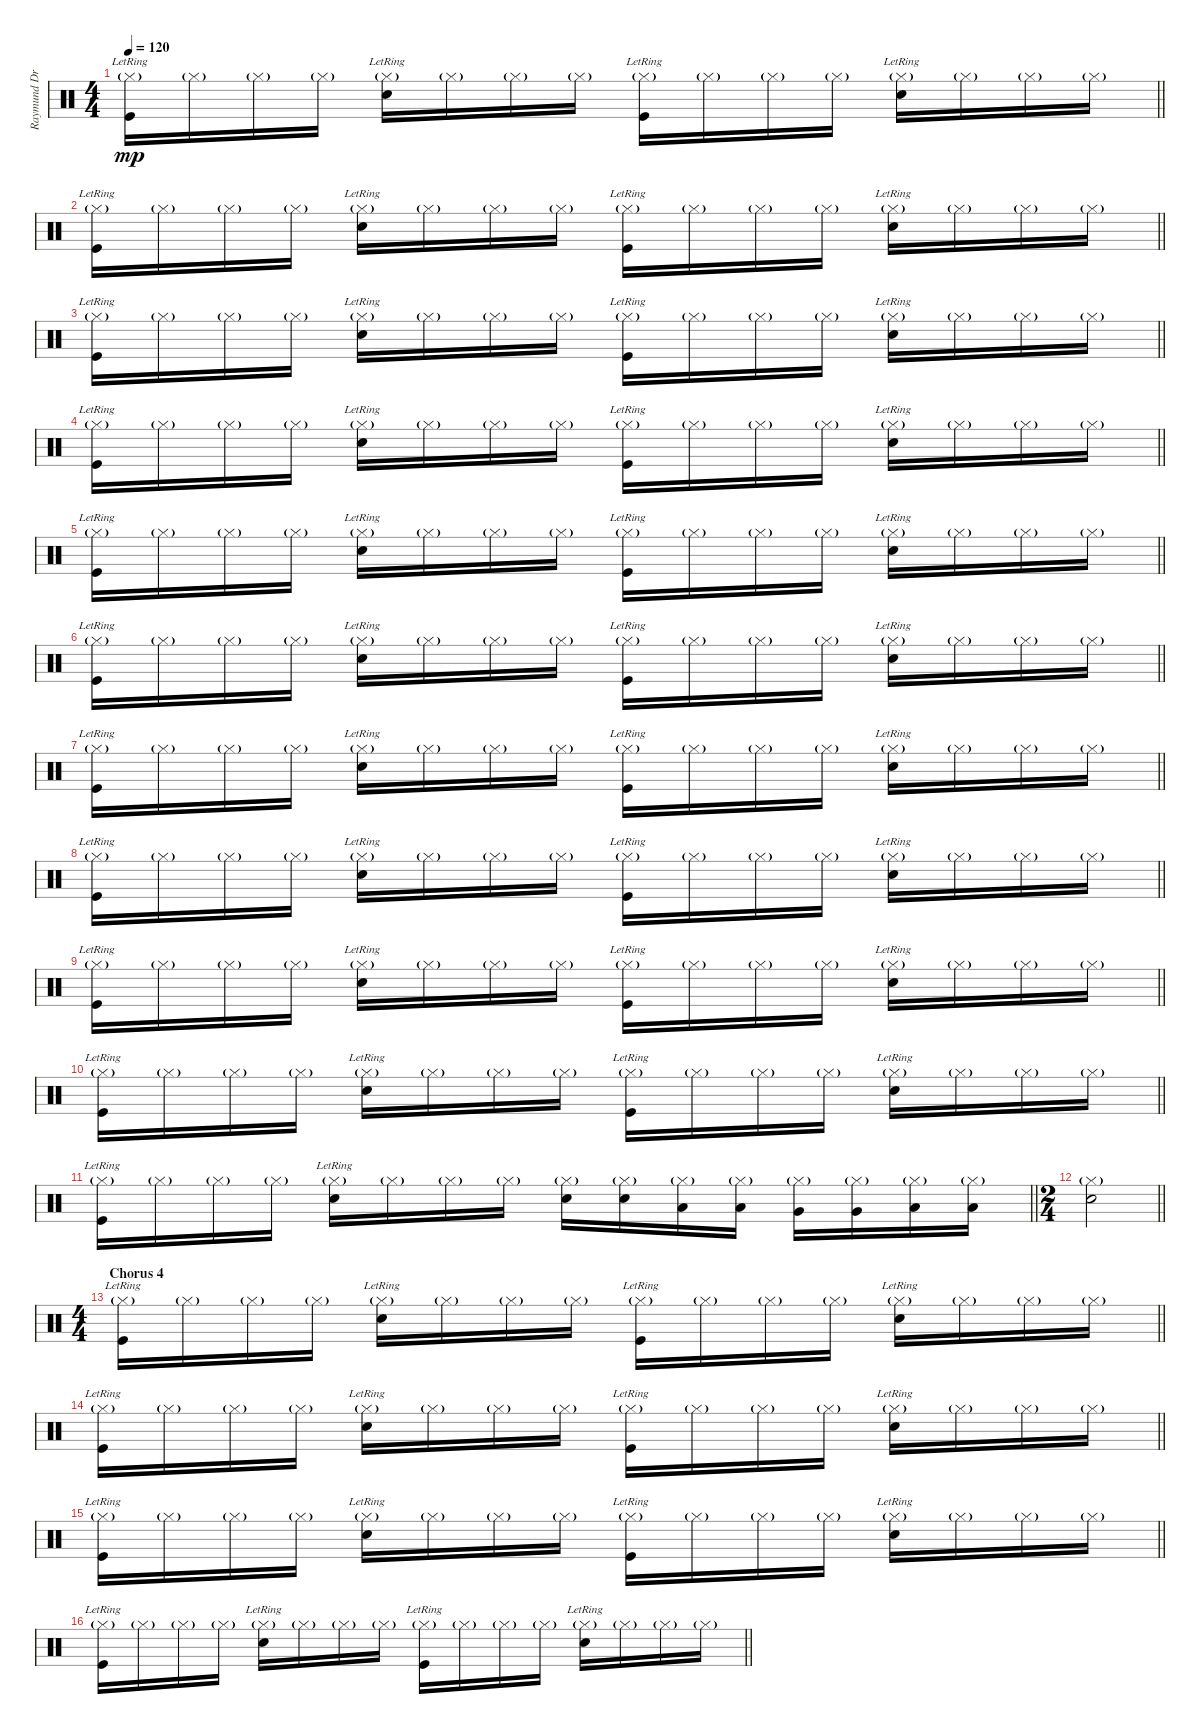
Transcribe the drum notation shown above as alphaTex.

\track ("Raymund Drums" "Raymund Dr") {instrument percussion}
\staff {score}
\articulation defaults
\ts (4 4)
\tempo 120
\clef neutral
\barLineRight lightlight
\ks c
("Hi-Hat (closed)"{g} "Kick (hit)"{lr}).16{dy mp} "Hi-Hat (closed)"{g}.16 "Hi-Hat (closed)"{g}.16 "Hi-Hat (closed)"{g}.16 ("Hi-Hat (closed)"{g} "Snare (hit) 2"{lr}).16 "Hi-Hat (closed)"{g}.16 "Hi-Hat (closed)"{g}.16 "Hi-Hat (closed)"{g}.16 ("Hi-Hat (closed)"{g} "Kick (hit)"{lr}).16 "Hi-Hat (closed)"{g}.16 "Hi-Hat (closed)"{g}.16 "Hi-Hat (closed)"{g}.16 ("Hi-Hat (closed)"{g} "Snare (hit) 2"{lr}).16 "Hi-Hat (closed)"{g}.16 "Hi-Hat (closed)"{g}.16 "Hi-Hat (closed)"{g}.16 |
\barLineRight lightlight
("Hi-Hat (closed)"{g} "Kick (hit)"{lr}).16 "Hi-Hat (closed)"{g}.16 "Hi-Hat (closed)"{g}.16 "Hi-Hat (closed)"{g}.16 ("Hi-Hat (closed)"{g} "Snare (hit) 2"{lr}).16 "Hi-Hat (closed)"{g}.16 "Hi-Hat (closed)"{g}.16 "Hi-Hat (closed)"{g}.16 ("Hi-Hat (closed)"{g} "Kick (hit)"{lr}).16 "Hi-Hat (closed)"{g}.16 "Hi-Hat (closed)"{g}.16 "Hi-Hat (closed)"{g}.16 ("Hi-Hat (closed)"{g} "Snare (hit) 2"{lr}).16 "Hi-Hat (closed)"{g}.16 "Hi-Hat (closed)"{g}.16 "Hi-Hat (closed)"{g}.16 |
\barLineRight lightlight
("Hi-Hat (closed)"{g} "Kick (hit)"{lr}).16 "Hi-Hat (closed)"{g}.16 "Hi-Hat (closed)"{g}.16 "Hi-Hat (closed)"{g}.16 ("Hi-Hat (closed)"{g} "Snare (hit) 2"{lr}).16 "Hi-Hat (closed)"{g}.16 "Hi-Hat (closed)"{g}.16 "Hi-Hat (closed)"{g}.16 ("Hi-Hat (closed)"{g} "Kick (hit)"{lr}).16 "Hi-Hat (closed)"{g}.16 "Hi-Hat (closed)"{g}.16 "Hi-Hat (closed)"{g}.16 ("Hi-Hat (closed)"{g} "Snare (hit) 2"{lr}).16 "Hi-Hat (closed)"{g}.16 "Hi-Hat (closed)"{g}.16 "Hi-Hat (closed)"{g}.16 |
\barLineRight lightlight
("Hi-Hat (closed)"{g} "Kick (hit)"{lr}).16 "Hi-Hat (closed)"{g}.16 "Hi-Hat (closed)"{g}.16 "Hi-Hat (closed)"{g}.16 ("Hi-Hat (closed)"{g} "Snare (hit) 2"{lr}).16 "Hi-Hat (closed)"{g}.16 "Hi-Hat (closed)"{g}.16 "Hi-Hat (closed)"{g}.16 ("Hi-Hat (closed)"{g} "Kick (hit)"{lr}).16 "Hi-Hat (closed)"{g}.16 "Hi-Hat (closed)"{g}.16 "Hi-Hat (closed)"{g}.16 ("Hi-Hat (closed)"{g} "Snare (hit) 2"{lr}).16 "Hi-Hat (closed)"{g}.16 "Hi-Hat (closed)"{g}.16 "Hi-Hat (closed)"{g}.16 |
\barLineRight lightlight
("Hi-Hat (closed)"{g} "Kick (hit)"{lr}).16 "Hi-Hat (closed)"{g}.16 "Hi-Hat (closed)"{g}.16 "Hi-Hat (closed)"{g}.16 ("Hi-Hat (closed)"{g} "Snare (hit) 2"{lr}).16 "Hi-Hat (closed)"{g}.16 "Hi-Hat (closed)"{g}.16 "Hi-Hat (closed)"{g}.16 ("Hi-Hat (closed)"{g} "Kick (hit)"{lr}).16 "Hi-Hat (closed)"{g}.16 "Hi-Hat (closed)"{g}.16 "Hi-Hat (closed)"{g}.16 ("Hi-Hat (closed)"{g} "Snare (hit) 2"{lr}).16 "Hi-Hat (closed)"{g}.16 "Hi-Hat (closed)"{g}.16 "Hi-Hat (closed)"{g}.16 |
\barLineRight lightlight
("Hi-Hat (closed)"{g} "Kick (hit)"{lr}).16 "Hi-Hat (closed)"{g}.16 "Hi-Hat (closed)"{g}.16 "Hi-Hat (closed)"{g}.16 ("Hi-Hat (closed)"{g} "Snare (hit) 2"{lr}).16 "Hi-Hat (closed)"{g}.16 "Hi-Hat (closed)"{g}.16 "Hi-Hat (closed)"{g}.16 ("Hi-Hat (closed)"{g} "Kick (hit)"{lr}).16 "Hi-Hat (closed)"{g}.16 "Hi-Hat (closed)"{g}.16 "Hi-Hat (closed)"{g}.16 ("Hi-Hat (closed)"{g} "Snare (hit) 2"{lr}).16 "Hi-Hat (closed)"{g}.16 "Hi-Hat (closed)"{g}.16 "Hi-Hat (closed)"{g}.16 |
\barLineRight lightlight
("Hi-Hat (closed)"{g} "Kick (hit)"{lr}).16 "Hi-Hat (closed)"{g}.16 "Hi-Hat (closed)"{g}.16 "Hi-Hat (closed)"{g}.16 ("Hi-Hat (closed)"{g} "Snare (hit) 2"{lr}).16 "Hi-Hat (closed)"{g}.16 "Hi-Hat (closed)"{g}.16 "Hi-Hat (closed)"{g}.16 ("Hi-Hat (closed)"{g} "Kick (hit)"{lr}).16 "Hi-Hat (closed)"{g}.16 "Hi-Hat (closed)"{g}.16 "Hi-Hat (closed)"{g}.16 ("Hi-Hat (closed)"{g} "Snare (hit) 2"{lr}).16 "Hi-Hat (closed)"{g}.16 "Hi-Hat (closed)"{g}.16 "Hi-Hat (closed)"{g}.16 |
\barLineRight lightlight
("Hi-Hat (closed)"{g} "Kick (hit)"{lr}).16 "Hi-Hat (closed)"{g}.16 "Hi-Hat (closed)"{g}.16 "Hi-Hat (closed)"{g}.16 ("Hi-Hat (closed)"{g} "Snare (hit) 2"{lr}).16 "Hi-Hat (closed)"{g}.16 "Hi-Hat (closed)"{g}.16 "Hi-Hat (closed)"{g}.16 ("Hi-Hat (closed)"{g} "Kick (hit)"{lr}).16 "Hi-Hat (closed)"{g}.16 "Hi-Hat (closed)"{g}.16 "Hi-Hat (closed)"{g}.16 ("Hi-Hat (closed)"{g} "Snare (hit) 2"{lr}).16 "Hi-Hat (closed)"{g}.16 "Hi-Hat (closed)"{g}.16 "Hi-Hat (closed)"{g}.16 |
\barLineRight lightlight
("Hi-Hat (closed)"{g} "Kick (hit)"{lr}).16 "Hi-Hat (closed)"{g}.16 "Hi-Hat (closed)"{g}.16 "Hi-Hat (closed)"{g}.16 ("Hi-Hat (closed)"{g} "Snare (hit) 2"{lr}).16 "Hi-Hat (closed)"{g}.16 "Hi-Hat (closed)"{g}.16 "Hi-Hat (closed)"{g}.16 ("Hi-Hat (closed)"{g} "Kick (hit)"{lr}).16 "Hi-Hat (closed)"{g}.16 "Hi-Hat (closed)"{g}.16 "Hi-Hat (closed)"{g}.16 ("Hi-Hat (closed)"{g} "Snare (hit) 2"{lr}).16 "Hi-Hat (closed)"{g}.16 "Hi-Hat (closed)"{g}.16 "Hi-Hat (closed)"{g}.16 |
\barLineRight lightlight
("Hi-Hat (closed)"{g} "Kick (hit)"{lr}).16 "Hi-Hat (closed)"{g}.16 "Hi-Hat (closed)"{g}.16 "Hi-Hat (closed)"{g}.16 ("Hi-Hat (closed)"{g} "Snare (hit) 2"{lr}).16 "Hi-Hat (closed)"{g}.16 "Hi-Hat (closed)"{g}.16 "Hi-Hat (closed)"{g}.16 ("Hi-Hat (closed)"{g} "Kick (hit)"{lr}).16 "Hi-Hat (closed)"{g}.16 "Hi-Hat (closed)"{g}.16 "Hi-Hat (closed)"{g}.16 ("Hi-Hat (closed)"{g} "Snare (hit) 2"{lr}).16 "Hi-Hat (closed)"{g}.16 "Hi-Hat (closed)"{g}.16 "Hi-Hat (closed)"{g}.16 |
\barLineRight lightlight
("Hi-Hat (closed)"{g} "Kick (hit)"{lr}).16 "Hi-Hat (closed)"{g}.16 "Hi-Hat (closed)"{g}.16 "Hi-Hat (closed)"{g}.16 ("Hi-Hat (closed)"{g} "Snare (hit) 2"{lr}).16 "Hi-Hat (closed)"{g}.16 "Hi-Hat (closed)"{g}.16 "Hi-Hat (closed)"{g}.16 ("Hi-Hat (closed)"{g} "Snare (hit) 2").16 ("Hi-Hat (closed)"{g} "Snare (hit) 2").16 ("Hi-Hat (closed)"{g} "Low Tom (hit)").16 ("Hi-Hat (closed)"{g} "Low Tom (hit)").16 ("Hi-Hat (closed)"{g} "Very Low Tom (hit)").16 ("Hi-Hat (closed)"{g} "Very Low Tom (hit)").16 ("Hi-Hat (closed)"{g} "Low Floor Tom (hit)").16 ("Hi-Hat (closed)"{g} "Low Floor Tom (hit)").16 |
\ts (2 4)
\barLineRight lightlight
("Hi-Hat (closed)"{g} "Snare (hit) 2").2 |
\ts (4 4)
\section ("" "Chorus 4")
\barLineRight lightlight
("Hi-Hat (closed)"{g} "Kick (hit)"{lr}).16 "Hi-Hat (closed)"{g}.16 "Hi-Hat (closed)"{g}.16 "Hi-Hat (closed)"{g}.16 ("Hi-Hat (closed)"{g} "Snare (hit) 2"{lr}).16 "Hi-Hat (closed)"{g}.16 "Hi-Hat (closed)"{g}.16 "Hi-Hat (closed)"{g}.16 ("Hi-Hat (closed)"{g} "Kick (hit)"{lr}).16 "Hi-Hat (closed)"{g}.16 "Hi-Hat (closed)"{g}.16 "Hi-Hat (closed)"{g}.16 ("Hi-Hat (closed)"{g} "Snare (hit) 2"{lr}).16 "Hi-Hat (closed)"{g}.16 "Hi-Hat (closed)"{g}.16 "Hi-Hat (closed)"{g}.16 |
\barLineRight lightlight
("Hi-Hat (closed)"{g} "Kick (hit)"{lr}).16 "Hi-Hat (closed)"{g}.16 "Hi-Hat (closed)"{g}.16 "Hi-Hat (closed)"{g}.16 ("Hi-Hat (closed)"{g} "Snare (hit) 2"{lr}).16 "Hi-Hat (closed)"{g}.16 "Hi-Hat (closed)"{g}.16 "Hi-Hat (closed)"{g}.16 ("Hi-Hat (closed)"{g} "Kick (hit)"{lr}).16 "Hi-Hat (closed)"{g}.16 "Hi-Hat (closed)"{g}.16 "Hi-Hat (closed)"{g}.16 ("Hi-Hat (closed)"{g} "Snare (hit) 2"{lr}).16 "Hi-Hat (closed)"{g}.16 "Hi-Hat (closed)"{g}.16 "Hi-Hat (closed)"{g}.16 |
\barLineRight lightlight
("Hi-Hat (closed)"{g} "Kick (hit)"{lr}).16 "Hi-Hat (closed)"{g}.16 "Hi-Hat (closed)"{g}.16 "Hi-Hat (closed)"{g}.16 ("Hi-Hat (closed)"{g} "Snare (hit) 2"{lr}).16 "Hi-Hat (closed)"{g}.16 "Hi-Hat (closed)"{g}.16 "Hi-Hat (closed)"{g}.16 ("Hi-Hat (closed)"{g} "Kick (hit)"{lr}).16 "Hi-Hat (closed)"{g}.16 "Hi-Hat (closed)"{g}.16 "Hi-Hat (closed)"{g}.16 ("Hi-Hat (closed)"{g} "Snare (hit) 2"{lr}).16 "Hi-Hat (closed)"{g}.16 "Hi-Hat (closed)"{g}.16 "Hi-Hat (closed)"{g}.16 |
\barLineRight lightlight
("Hi-Hat (closed)"{g} "Kick (hit)"{lr}).16 "Hi-Hat (closed)"{g}.16 "Hi-Hat (closed)"{g}.16 "Hi-Hat (closed)"{g}.16 ("Hi-Hat (closed)"{g} "Snare (hit) 2"{lr}).16 "Hi-Hat (closed)"{g}.16 "Hi-Hat (closed)"{g}.16 "Hi-Hat (closed)"{g}.16 ("Hi-Hat (closed)"{g} "Kick (hit)"{lr}).16 "Hi-Hat (closed)"{g}.16 "Hi-Hat (closed)"{g}.16 "Hi-Hat (closed)"{g}.16 ("Hi-Hat (closed)"{g} "Snare (hit) 2"{lr}).16 "Hi-Hat (closed)"{g}.16 "Hi-Hat (closed)"{g}.16 "Hi-Hat (closed)"{g}.16
